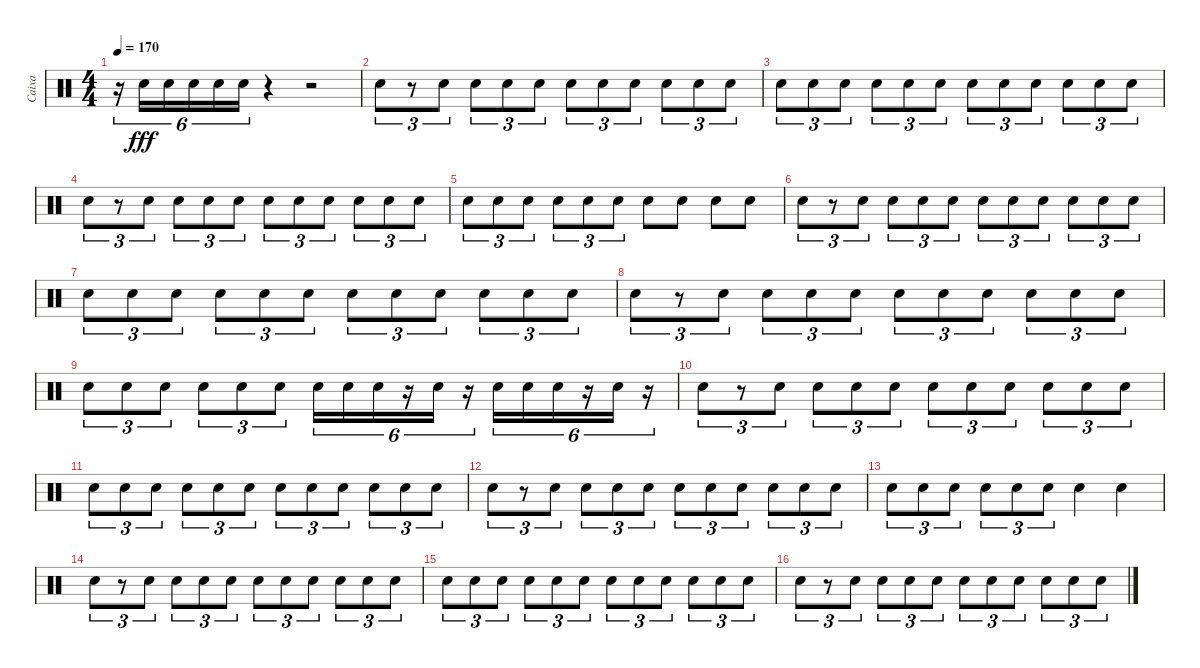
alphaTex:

\track ("Caixa" "Caixa") {instrument percussion}
\staff {score}
\articulation defaults
\ts (4 4)
\tempo 170
\clef neutral
\ks c
r.16{tu (6 4) dy fff} "Electric Snare (hit)".16{tu (6 4)} "Electric Snare (hit)".16{tu (6 4)} "Electric Snare (hit)".16{tu (6 4)} "Electric Snare (hit)".16{tu (6 4)} "Electric Snare (hit)".16{tu (6 4)} r.4 r.2 |
"Electric Snare (hit)".8{tu (3 2)} r.8{tu (3 2)} "Electric Snare (hit)".8{tu (3 2)} "Electric Snare (hit)".8{tu (3 2)} "Electric Snare (hit)".8{tu (3 2)} "Electric Snare (hit)".8{tu (3 2)} "Electric Snare (hit)".8{tu (3 2)} "Electric Snare (hit)".8{tu (3 2)} "Electric Snare (hit)".8{tu (3 2)} "Electric Snare (hit)".8{tu (3 2)} "Electric Snare (hit)".8{tu (3 2)} "Electric Snare (hit)".8{tu (3 2)} |
"Electric Snare (hit)".8{tu (3 2)} "Electric Snare (hit)".8{tu (3 2)} "Electric Snare (hit)".8{tu (3 2)} "Electric Snare (hit)".8{tu (3 2)} "Electric Snare (hit)".8{tu (3 2)} "Electric Snare (hit)".8{tu (3 2)} "Electric Snare (hit)".8{tu (3 2)} "Electric Snare (hit)".8{tu (3 2)} "Electric Snare (hit)".8{tu (3 2)} "Electric Snare (hit)".8{tu (3 2)} "Electric Snare (hit)".8{tu (3 2)} "Electric Snare (hit)".8{tu (3 2)} |
"Electric Snare (hit)".8{tu (3 2)} r.8{tu (3 2)} "Electric Snare (hit)".8{tu (3 2)} "Electric Snare (hit)".8{tu (3 2)} "Electric Snare (hit)".8{tu (3 2)} "Electric Snare (hit)".8{tu (3 2)} "Electric Snare (hit)".8{tu (3 2)} "Electric Snare (hit)".8{tu (3 2)} "Electric Snare (hit)".8{tu (3 2)} "Electric Snare (hit)".8{tu (3 2)} "Electric Snare (hit)".8{tu (3 2)} "Electric Snare (hit)".8{tu (3 2)} |
"Electric Snare (hit)".8{tu (3 2)} "Electric Snare (hit)".8{tu (3 2)} "Electric Snare (hit)".8{tu (3 2)} "Electric Snare (hit)".8{tu (3 2)} "Electric Snare (hit)".8{tu (3 2)} "Electric Snare (hit)".8{tu (3 2)} "Electric Snare (hit)".8 "Electric Snare (hit)".8 "Electric Snare (hit)".8 "Electric Snare (hit)".8 |
"Electric Snare (hit)".8{tu (3 2)} r.8{tu (3 2)} "Electric Snare (hit)".8{tu (3 2)} "Electric Snare (hit)".8{tu (3 2)} "Electric Snare (hit)".8{tu (3 2)} "Electric Snare (hit)".8{tu (3 2)} "Electric Snare (hit)".8{tu (3 2)} "Electric Snare (hit)".8{tu (3 2)} "Electric Snare (hit)".8{tu (3 2)} "Electric Snare (hit)".8{tu (3 2)} "Electric Snare (hit)".8{tu (3 2)} "Electric Snare (hit)".8{tu (3 2)} |
"Electric Snare (hit)".8{tu (3 2)} "Electric Snare (hit)".8{tu (3 2)} "Electric Snare (hit)".8{tu (3 2)} "Electric Snare (hit)".8{tu (3 2)} "Electric Snare (hit)".8{tu (3 2)} "Electric Snare (hit)".8{tu (3 2)} "Electric Snare (hit)".8{tu (3 2)} "Electric Snare (hit)".8{tu (3 2)} "Electric Snare (hit)".8{tu (3 2)} "Electric Snare (hit)".8{tu (3 2)} "Electric Snare (hit)".8{tu (3 2)} "Electric Snare (hit)".8{tu (3 2)} |
"Electric Snare (hit)".8{tu (3 2)} r.8{tu (3 2)} "Electric Snare (hit)".8{tu (3 2)} "Electric Snare (hit)".8{tu (3 2)} "Electric Snare (hit)".8{tu (3 2)} "Electric Snare (hit)".8{tu (3 2)} "Electric Snare (hit)".8{tu (3 2)} "Electric Snare (hit)".8{tu (3 2)} "Electric Snare (hit)".8{tu (3 2)} "Electric Snare (hit)".8{tu (3 2)} "Electric Snare (hit)".8{tu (3 2)} "Electric Snare (hit)".8{tu (3 2)} |
"Electric Snare (hit)".8{tu (3 2)} "Electric Snare (hit)".8{tu (3 2)} "Electric Snare (hit)".8{tu (3 2)} "Electric Snare (hit)".8{tu (3 2)} "Electric Snare (hit)".8{tu (3 2)} "Electric Snare (hit)".8{tu (3 2)} "Electric Snare (hit)".16{tu (6 4)} "Electric Snare (hit)".16{tu (6 4)} "Electric Snare (hit)".16{tu (6 4)} r.16{tu (6 4)} "Electric Snare (hit)".16{tu (6 4)} r.16{tu (6 4)} "Electric Snare (hit)".16{tu (6 4)} "Electric Snare (hit)".16{tu (6 4)} "Electric Snare (hit)".16{tu (6 4)} r.16{tu (6 4)} "Electric Snare (hit)".16{tu (6 4)} r.16{tu (6 4)} |
"Electric Snare (hit)".8{tu (3 2)} r.8{tu (3 2)} "Electric Snare (hit)".8{tu (3 2)} "Electric Snare (hit)".8{tu (3 2)} "Electric Snare (hit)".8{tu (3 2)} "Electric Snare (hit)".8{tu (3 2)} "Electric Snare (hit)".8{tu (3 2)} "Electric Snare (hit)".8{tu (3 2)} "Electric Snare (hit)".8{tu (3 2)} "Electric Snare (hit)".8{tu (3 2)} "Electric Snare (hit)".8{tu (3 2)} "Electric Snare (hit)".8{tu (3 2)} |
"Electric Snare (hit)".8{tu (3 2)} "Electric Snare (hit)".8{tu (3 2)} "Electric Snare (hit)".8{tu (3 2)} "Electric Snare (hit)".8{tu (3 2)} "Electric Snare (hit)".8{tu (3 2)} "Electric Snare (hit)".8{tu (3 2)} "Electric Snare (hit)".8{tu (3 2)} "Electric Snare (hit)".8{tu (3 2)} "Electric Snare (hit)".8{tu (3 2)} "Electric Snare (hit)".8{tu (3 2)} "Electric Snare (hit)".8{tu (3 2)} "Electric Snare (hit)".8{tu (3 2)} |
"Electric Snare (hit)".8{tu (3 2)} r.8{tu (3 2)} "Electric Snare (hit)".8{tu (3 2)} "Electric Snare (hit)".8{tu (3 2)} "Electric Snare (hit)".8{tu (3 2)} "Electric Snare (hit)".8{tu (3 2)} "Electric Snare (hit)".8{tu (3 2)} "Electric Snare (hit)".8{tu (3 2)} "Electric Snare (hit)".8{tu (3 2)} "Electric Snare (hit)".8{tu (3 2)} "Electric Snare (hit)".8{tu (3 2)} "Electric Snare (hit)".8{tu (3 2)} |
"Electric Snare (hit)".8{tu (3 2)} "Electric Snare (hit)".8{tu (3 2)} "Electric Snare (hit)".8{tu (3 2)} "Electric Snare (hit)".8{tu (3 2)} "Electric Snare (hit)".8{tu (3 2)} "Electric Snare (hit)".8{tu (3 2)} "Electric Snare (hit)".4 "Electric Snare (hit)".4 |
"Electric Snare (hit)".8{tu (3 2)} r.8{tu (3 2)} "Electric Snare (hit)".8{tu (3 2)} "Electric Snare (hit)".8{tu (3 2)} "Electric Snare (hit)".8{tu (3 2)} "Electric Snare (hit)".8{tu (3 2)} "Electric Snare (hit)".8{tu (3 2)} "Electric Snare (hit)".8{tu (3 2)} "Electric Snare (hit)".8{tu (3 2)} "Electric Snare (hit)".8{tu (3 2)} "Electric Snare (hit)".8{tu (3 2)} "Electric Snare (hit)".8{tu (3 2)} |
"Electric Snare (hit)".8{tu (3 2)} "Electric Snare (hit)".8{tu (3 2)} "Electric Snare (hit)".8{tu (3 2)} "Electric Snare (hit)".8{tu (3 2)} "Electric Snare (hit)".8{tu (3 2)} "Electric Snare (hit)".8{tu (3 2)} "Electric Snare (hit)".8{tu (3 2)} "Electric Snare (hit)".8{tu (3 2)} "Electric Snare (hit)".8{tu (3 2)} "Electric Snare (hit)".8{tu (3 2)} "Electric Snare (hit)".8{tu (3 2)} "Electric Snare (hit)".8{tu (3 2)} |
"Electric Snare (hit)".8{tu (3 2)} r.8{tu (3 2)} "Electric Snare (hit)".8{tu (3 2)} "Electric Snare (hit)".8{tu (3 2)} "Electric Snare (hit)".8{tu (3 2)} "Electric Snare (hit)".8{tu (3 2)} "Electric Snare (hit)".8{tu (3 2)} "Electric Snare (hit)".8{tu (3 2)} "Electric Snare (hit)".8{tu (3 2)} "Electric Snare (hit)".8{tu (3 2)} "Electric Snare (hit)".8{tu (3 2)} "Electric Snare (hit)".8{tu (3 2)}
